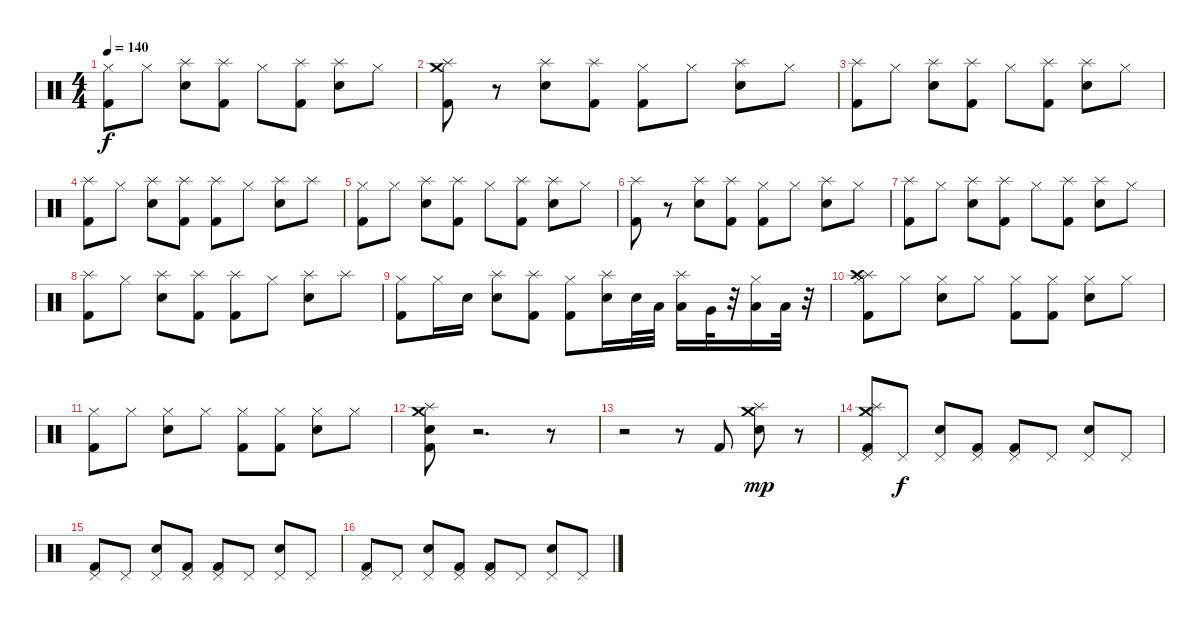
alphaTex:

\track "" {instrument percussion}
\staff {score}
\articulation defaults
\ts (4 4)
\tempo 140
\clef neutral
\ks c
("Hi-Hat (closed)" "Kick (hit) 2").8{dy f} "Hi-Hat (closed)".8 ("Splash (hit)" "Electric Snare (hit)").8 ("Splash (hit)" "Kick (hit) 2").8 "Hi-Hat (closed)".8 ("Splash (hit)" "Kick (hit) 2").8 ("Splash (hit)" "Electric Snare (hit)").8 "Hi-Hat (closed)".8 |
("Splash (hit)" "Crash medium (hit)" "Kick (hit) 2").8 r.8 ("Splash (hit)" "Electric Snare (hit)").8 ("Splash (hit)" "Kick (hit) 2").8 ("Hi-Hat (closed)" "Kick (hit) 2").8 "Hi-Hat (closed)".8 ("Splash (hit)" "Electric Snare (hit)").8 "Hi-Hat (closed)".8 |
("Splash (hit)" "Kick (hit) 2").8 "Hi-Hat (closed)".8 ("Splash (hit)" "Electric Snare (hit)").8 ("Splash (hit)" "Kick (hit) 2").8 "Hi-Hat (closed)".8 ("Splash (hit)" "Kick (hit) 2").8 ("Splash (hit)" "Electric Snare (hit)").8 "Hi-Hat (closed)".8 |
("Splash (hit)" "Kick (hit) 2").8 "Hi-Hat (closed)".8 ("Splash (hit)" "Electric Snare (hit)").8 ("Splash (hit)" "Kick (hit) 2").8 ("Splash (hit)" "Kick (hit) 2").8 "Hi-Hat (closed)".8 ("Splash (hit)" "Electric Snare (hit)").8 "Splash (hit)".8 |
("Hi-Hat (closed)" "Kick (hit) 2").8 "Hi-Hat (closed)".8 ("Splash (hit)" "Electric Snare (hit)").8 ("Splash (hit)" "Kick (hit) 2").8 "Hi-Hat (closed)".8 ("Splash (hit)" "Kick (hit) 2").8 ("Splash (hit)" "Electric Snare (hit)").8 "Hi-Hat (closed)".8 |
("Splash (hit)" "Kick (hit) 2").8 r.8 ("Splash (hit)" "Electric Snare (hit)").8 ("Splash (hit)" "Kick (hit) 2").8 ("Hi-Hat (closed)" "Kick (hit) 2").8 "Hi-Hat (closed)".8 ("Splash (hit)" "Electric Snare (hit)").8 "Hi-Hat (closed)".8 |
("Splash (hit)" "Kick (hit) 2").8 "Hi-Hat (closed)".8 ("Splash (hit)" "Electric Snare (hit)").8 ("Splash (hit)" "Kick (hit) 2").8 "Hi-Hat (closed)".8 ("Splash (hit)" "Kick (hit) 2").8 ("Splash (hit)" "Electric Snare (hit)").8 "Hi-Hat (closed)".8 |
("Splash (hit)" "Kick (hit) 2").8 "Hi-Hat (closed)".8 ("Splash (hit)" "Electric Snare (hit)").8 ("Splash (hit)" "Kick (hit) 2").8 ("Splash (hit)" "Kick (hit) 2").8 "Hi-Hat (closed)".8 ("Splash (hit)" "Electric Snare (hit)").8 "Splash (hit)".8 |
("Hi-Hat (closed)" "Kick (hit) 2").8 "Hi-Hat (closed)".16 "Electric Snare (hit)".16 ("Splash (hit)" "Electric Snare (hit)").8 ("Splash (hit)" "Kick (hit) 2").8 ("Kick (hit) 2" "Hi-Hat (closed)").8 ("Electric Snare (hit)" "Splash (hit)").16 "Electric Snare (hit)".32 "Low Tom (hit)".32 ("Splash (hit)" "Low Tom (hit)").16 "Very Low Tom (hit)".32 r.32 ("Low Floor Tom (hit)" "Hi-Hat (closed)").16 "Low Floor Tom (hit)".32 r.32 |
("Splash (hit)" "Crash high (hit)" "Hi-Hat (closed)" "Kick (hit) 2").8 "Hi-Hat (closed)".8 ("Hi-Hat (closed)" "Electric Snare (hit)").8 "Hi-Hat (closed)".8 ("Hi-Hat (closed)" "Kick (hit) 2").8 ("Hi-Hat (closed)" "Kick (hit) 2").8 ("Hi-Hat (closed)" "Electric Snare (hit)").8 "Hi-Hat (closed)".8 |
("Hi-Hat (closed)" "Kick (hit) 2").8 "Hi-Hat (closed)".8 ("Hi-Hat (closed)" "Electric Snare (hit)").8 "Hi-Hat (closed)".8 ("Hi-Hat (closed)" "Kick (hit) 2").8 ("Hi-Hat (closed)" "Kick (hit) 2").8 ("Hi-Hat (closed)" "Electric Snare (hit)").8 "Hi-Hat (closed)".8 |
("Splash (hit)" "Crash medium (hit)" "Electric Snare (hit)" "Kick (hit) 2").8 r.2{d} r.8 |
r.2 r.8 "Kick (hit) 2".8 ("Crash medium (hit)" "Splash (hit)" "Electric Snare (hit)").8{dy mp} r.8 |
("Splash (hit)" "Crash medium (hit)" "Pedal Hi-Hat (hit)" "Kick (hit) 2").8 "Pedal Hi-Hat (hit)".8{dy f} ("Pedal Hi-Hat (hit)" "Electric Snare (hit)").8 ("Pedal Hi-Hat (hit)" "Kick (hit) 2").8 ("Pedal Hi-Hat (hit)" "Kick (hit) 2").8 "Pedal Hi-Hat (hit)".8 ("Pedal Hi-Hat (hit)" "Electric Snare (hit)").8 "Pedal Hi-Hat (hit)".8 |
("Pedal Hi-Hat (hit)" "Kick (hit) 2").8 "Pedal Hi-Hat (hit)".8 ("Pedal Hi-Hat (hit)" "Electric Snare (hit)").8 ("Pedal Hi-Hat (hit)" "Kick (hit) 2").8 ("Pedal Hi-Hat (hit)" "Kick (hit) 2").8 "Pedal Hi-Hat (hit)".8 ("Pedal Hi-Hat (hit)" "Electric Snare (hit)").8 "Pedal Hi-Hat (hit)".8 |
("Pedal Hi-Hat (hit)" "Kick (hit) 2").8 "Pedal Hi-Hat (hit)".8 ("Pedal Hi-Hat (hit)" "Electric Snare (hit)").8 ("Pedal Hi-Hat (hit)" "Kick (hit) 2").8 ("Pedal Hi-Hat (hit)" "Kick (hit) 2").8 "Pedal Hi-Hat (hit)".8 ("Pedal Hi-Hat (hit)" "Electric Snare (hit)").8 "Pedal Hi-Hat (hit)".8
